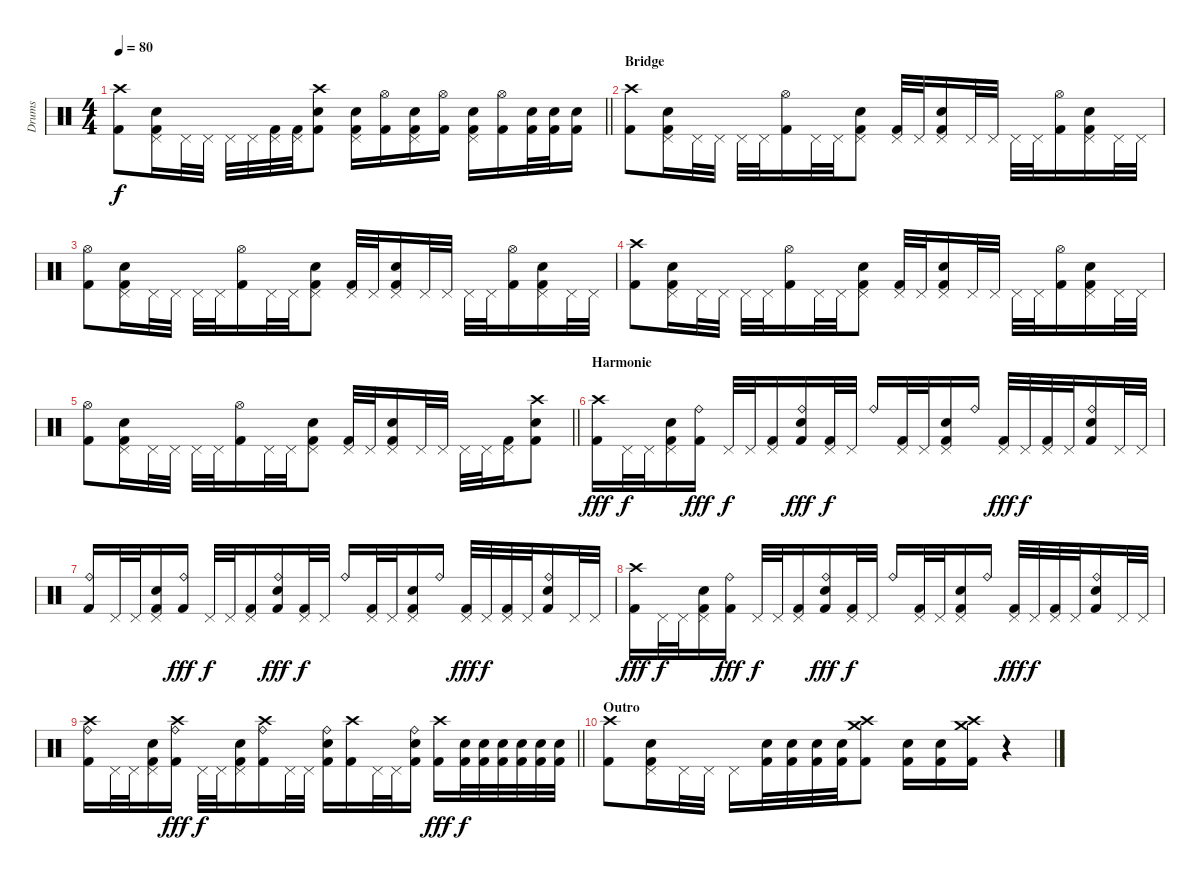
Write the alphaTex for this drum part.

\track ("Drums" "Drums") {instrument percussion}
\staff {score}
\articulation defaults
\ts (4 4)
\tempo 80
\clef neutral
\barLineRight lightlight
\ks c
("Crash high (hit)" "Kick (hit) 2").8{dy f} ("Pedal Hi-Hat (hit)" "Snare (hit) 2" "Kick (hit) 2").16 "Pedal Hi-Hat (hit)".32 "Pedal Hi-Hat (hit)".32 "Pedal Hi-Hat (hit)".32 "Pedal Hi-Hat (hit)".32 ("Pedal Hi-Hat (hit)" "Kick (hit) 2").32 ("Pedal Hi-Hat (hit)" "Kick (hit) 2").32 ("Crash high (hit)" "Snare (hit) 2" "Kick (hit) 2").8 ("Pedal Hi-Hat (hit)" "Snare (hit) 2" "Kick (hit) 2").16 ("Hi-Hat (open)" "Kick (hit) 2").16 ("Pedal Hi-Hat (hit)" "Snare (hit) 2" "Kick (hit) 2").16 ("Hi-Hat (open)" "Kick (hit) 2").16 ("Pedal Hi-Hat (hit)" "Snare (hit) 2" "Kick (hit) 2").16 ("Hi-Hat (open)" "Kick (hit) 2").16 ("Snare (hit) 2" "Kick (hit) 2").32 ("Snare (hit) 2" "Kick (hit) 2").32 ("Snare (hit) 2" "Kick (hit) 2").16 |
\section ("" "Bridge")
("Crash high (hit)" "Kick (hit) 2").8 ("Pedal Hi-Hat (hit)" "Snare (hit) 2" "Kick (hit) 2").16 "Pedal Hi-Hat (hit)".32 "Pedal Hi-Hat (hit)".32 "Pedal Hi-Hat (hit)".32 "Pedal Hi-Hat (hit)".32 ("Hi-Hat (open)" "Kick (hit) 2").16 "Pedal Hi-Hat (hit)".32 "Pedal Hi-Hat (hit)".32 ("Pedal Hi-Hat (hit)" "Snare (hit) 2" "Kick (hit) 2").8 ("Pedal Hi-Hat (hit)" "Kick (hit) 2").32 "Pedal Hi-Hat (hit)".32 ("Pedal Hi-Hat (hit)" "Snare (hit) 2" "Kick (hit) 2").16 "Pedal Hi-Hat (hit)".32 "Pedal Hi-Hat (hit)".32 "Pedal Hi-Hat (hit)".32 "Pedal Hi-Hat (hit)".32 ("Hi-Hat (open)" "Kick (hit) 2").16 ("Pedal Hi-Hat (hit)" "Snare (hit) 2" "Kick (hit) 2").16 "Pedal Hi-Hat (hit)".32 "Pedal Hi-Hat (hit)".32 |
("Hi-Hat (open)" "Kick (hit) 2").8 ("Pedal Hi-Hat (hit)" "Snare (hit) 2" "Kick (hit) 2").16 "Pedal Hi-Hat (hit)".32 "Pedal Hi-Hat (hit)".32 "Pedal Hi-Hat (hit)".32 "Pedal Hi-Hat (hit)".32 ("Hi-Hat (open)" "Kick (hit) 2").16 "Pedal Hi-Hat (hit)".32 "Pedal Hi-Hat (hit)".32 ("Pedal Hi-Hat (hit)" "Snare (hit) 2" "Kick (hit) 2").8 ("Pedal Hi-Hat (hit)" "Kick (hit) 2").32 "Pedal Hi-Hat (hit)".32 ("Pedal Hi-Hat (hit)" "Snare (hit) 2" "Kick (hit) 2").16 "Pedal Hi-Hat (hit)".32 "Pedal Hi-Hat (hit)".32 "Pedal Hi-Hat (hit)".32 "Pedal Hi-Hat (hit)".32 ("Hi-Hat (open)" "Kick (hit) 2").16 ("Pedal Hi-Hat (hit)" "Snare (hit) 2" "Kick (hit) 2").16 "Pedal Hi-Hat (hit)".32 "Pedal Hi-Hat (hit)".32 |
("Crash high (hit)" "Kick (hit) 2").8 ("Pedal Hi-Hat (hit)" "Snare (hit) 2" "Kick (hit) 2").16 "Pedal Hi-Hat (hit)".32 "Pedal Hi-Hat (hit)".32 "Pedal Hi-Hat (hit)".32 "Pedal Hi-Hat (hit)".32 ("Hi-Hat (open)" "Kick (hit) 2").16 "Pedal Hi-Hat (hit)".32 "Pedal Hi-Hat (hit)".32 ("Pedal Hi-Hat (hit)" "Snare (hit) 2" "Kick (hit) 2").8 ("Pedal Hi-Hat (hit)" "Kick (hit) 2").32 "Pedal Hi-Hat (hit)".32 ("Pedal Hi-Hat (hit)" "Snare (hit) 2" "Kick (hit) 2").16 "Pedal Hi-Hat (hit)".32 "Pedal Hi-Hat (hit)".32 "Pedal Hi-Hat (hit)".32 "Pedal Hi-Hat (hit)".32 ("Hi-Hat (open)" "Kick (hit) 2").16 ("Pedal Hi-Hat (hit)" "Snare (hit) 2" "Kick (hit) 2").16 "Pedal Hi-Hat (hit)".32 "Pedal Hi-Hat (hit)".32 |
\barLineRight lightlight
("Hi-Hat (open)" "Kick (hit) 2").8 ("Pedal Hi-Hat (hit)" "Snare (hit) 2" "Kick (hit) 2").16 "Pedal Hi-Hat (hit)".32 "Pedal Hi-Hat (hit)".32 "Pedal Hi-Hat (hit)".32 "Pedal Hi-Hat (hit)".32 ("Hi-Hat (open)" "Kick (hit) 2").16 "Pedal Hi-Hat (hit)".32 "Pedal Hi-Hat (hit)".32 ("Pedal Hi-Hat (hit)" "Snare (hit) 2" "Kick (hit) 2").8 ("Pedal Hi-Hat (hit)" "Kick (hit) 2").32 "Pedal Hi-Hat (hit)".32 ("Pedal Hi-Hat (hit)" "Snare (hit) 2" "Kick (hit) 2").16 "Pedal Hi-Hat (hit)".32 "Pedal Hi-Hat (hit)".32 "Pedal Hi-Hat (hit)".32 "Pedal Hi-Hat (hit)".32 ("Pedal Hi-Hat (hit)" "Kick (hit) 2").16 ("Crash high (hit)" "Snare (hit) 2" "Kick (hit) 2").8 |
\section ("" "Harmonie")
("Crash high (hit)" "Kick (hit) 2").16{dy fff} "Pedal Hi-Hat (hit)".32{dy f} "Pedal Hi-Hat (hit)".32 ("Pedal Hi-Hat (hit)" "Snare (hit) 2" "Kick (hit) 2").16 ("Ride (bell)" "Kick (hit) 2").16{dy fff} "Pedal Hi-Hat (hit)".32{dy f} "Pedal Hi-Hat (hit)".32 ("Pedal Hi-Hat (hit)" "Kick (hit) 2").16 ("Ride (bell)" "Snare (hit) 2" "Kick (hit) 2").16{dy fff} ("Pedal Hi-Hat (hit)" "Kick (hit) 2").32{dy f} "Pedal Hi-Hat (hit)".32 "Ride (bell)".16 ("Pedal Hi-Hat (hit)" "Kick (hit) 2").32 "Pedal Hi-Hat (hit)".32 ("Pedal Hi-Hat (hit)" "Snare (hit) 2" "Kick (hit) 2").16 "Ride (bell)".16 ("Pedal Hi-Hat (hit)" "Kick (hit) 2").32{dy fff} "Pedal Hi-Hat (hit)".32{dy f} ("Pedal Hi-Hat (hit)" "Kick (hit) 2").32 "Pedal Hi-Hat (hit)".32 ("Ride (bell)" "Snare (hit) 2" "Kick (hit) 2").16 "Pedal Hi-Hat (hit)".32 "Pedal Hi-Hat (hit)".32 |
("Ride (bell)" "Kick (hit) 2").16 "Pedal Hi-Hat (hit)".32 "Pedal Hi-Hat (hit)".32 ("Pedal Hi-Hat (hit)" "Snare (hit) 2" "Kick (hit) 2").16 ("Ride (bell)" "Kick (hit) 2").16{dy fff} "Pedal Hi-Hat (hit)".32{dy f} "Pedal Hi-Hat (hit)".32 ("Pedal Hi-Hat (hit)" "Kick (hit) 2").16 ("Ride (bell)" "Snare (hit) 2" "Kick (hit) 2").16{dy fff} ("Pedal Hi-Hat (hit)" "Kick (hit) 2").32{dy f} "Pedal Hi-Hat (hit)".32 "Ride (bell)".16 ("Pedal Hi-Hat (hit)" "Kick (hit) 2").32 "Pedal Hi-Hat (hit)".32 ("Pedal Hi-Hat (hit)" "Snare (hit) 2" "Kick (hit) 2").16 "Ride (bell)".16 ("Pedal Hi-Hat (hit)" "Kick (hit) 2").32{dy fff} "Pedal Hi-Hat (hit)".32{dy f} ("Pedal Hi-Hat (hit)" "Kick (hit) 2").32 "Pedal Hi-Hat (hit)".32 ("Ride (bell)" "Snare (hit) 2" "Kick (hit) 2").16 "Pedal Hi-Hat (hit)".32 "Pedal Hi-Hat (hit)".32 |
("Crash high (hit)" "Kick (hit) 2").16{dy fff} "Pedal Hi-Hat (hit)".32{dy f} "Pedal Hi-Hat (hit)".32 ("Pedal Hi-Hat (hit)" "Snare (hit) 2" "Kick (hit) 2").16 ("Ride (bell)" "Kick (hit) 2").16{dy fff} "Pedal Hi-Hat (hit)".32{dy f} "Pedal Hi-Hat (hit)".32 ("Pedal Hi-Hat (hit)" "Kick (hit) 2").16 ("Ride (bell)" "Snare (hit) 2" "Kick (hit) 2").16{dy fff} ("Pedal Hi-Hat (hit)" "Kick (hit) 2").32{dy f} "Pedal Hi-Hat (hit)".32 "Ride (bell)".16 ("Pedal Hi-Hat (hit)" "Kick (hit) 2").32 "Pedal Hi-Hat (hit)".32 ("Pedal Hi-Hat (hit)" "Snare (hit) 2" "Kick (hit) 2").16 "Ride (bell)".16 ("Pedal Hi-Hat (hit)" "Kick (hit) 2").32{dy fff} "Pedal Hi-Hat (hit)".32{dy f} ("Pedal Hi-Hat (hit)" "Kick (hit) 2").32 "Pedal Hi-Hat (hit)".32 ("Ride (bell)" "Snare (hit) 2" "Kick (hit) 2").16 "Pedal Hi-Hat (hit)".32 "Pedal Hi-Hat (hit)".32 |
\barLineRight lightlight
("Crash high (hit)" "Ride (bell)" "Kick (hit) 2").16 "Pedal Hi-Hat (hit)".32 "Pedal Hi-Hat (hit)".32 ("Pedal Hi-Hat (hit)" "Snare (hit) 2" "Kick (hit) 2").16 ("Crash high (hit)" "Ride (bell)" "Kick (hit) 2").16{dy fff} "Pedal Hi-Hat (hit)".32{dy f} "Pedal Hi-Hat (hit)".32 ("Pedal Hi-Hat (hit)" "Snare (hit) 2" "Kick (hit) 2").16 ("Crash high (hit)" "Ride (bell)" "Kick (hit) 2").16 "Pedal Hi-Hat (hit)".32 "Pedal Hi-Hat (hit)".32 ("Ride (bell)" "Snare (hit) 2" "Kick (hit) 2").16 ("Crash high (hit)" "Kick (hit) 2").16 "Pedal Hi-Hat (hit)".32 "Pedal Hi-Hat (hit)".32 ("Ride (bell)" "Snare (hit) 2" "Kick (hit) 2").16 ("Crash high (hit)" "Kick (hit) 2").16{dy fff} ("Snare (hit) 2" "Kick (hit) 2").32{dy f} ("Snare (hit) 2" "Kick (hit) 2").32 ("Snare (hit) 2" "Kick (hit) 2").32 ("Snare (hit) 2" "Kick (hit) 2").32 ("Snare (hit) 2" "Kick (hit) 2").32 ("Snare (hit) 2" "Kick (hit) 2").32 |
\section ("" "Outro")
("Crash high (hit)" "Kick (hit) 2").8 ("Pedal Hi-Hat (hit)" "Snare (hit) 2" "Kick (hit) 2").16 "Pedal Hi-Hat (hit)".32 "Pedal Hi-Hat (hit)".32 "Pedal Hi-Hat (hit)".16 ("Snare (hit) 2" "Kick (hit) 2").32 ("Snare (hit) 2" "Kick (hit) 2").32 ("Snare (hit) 2" "Kick (hit) 2").32 ("Snare (hit) 2" "Kick (hit) 2").32 ("Crash high (hit)" "Crash medium (hit)" "Kick (hit) 2").8 ("Snare (hit) 2" "Kick (hit) 2").16 ("Snare (hit) 2" "Kick (hit) 2").16 ("Crash high (hit)" "Crash medium (hit)" "Kick (hit) 2").16 r.4
